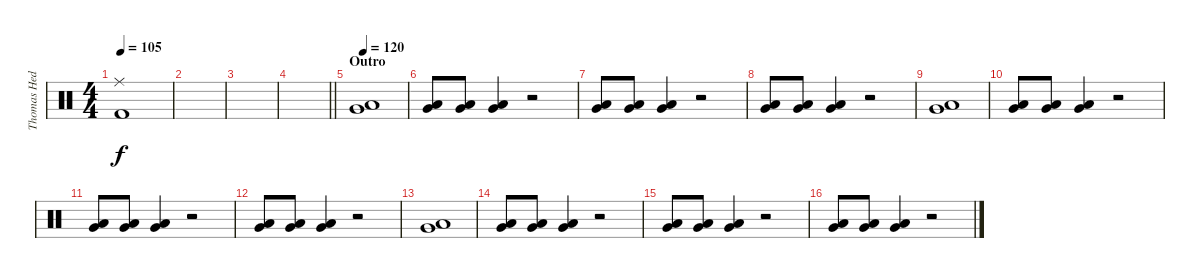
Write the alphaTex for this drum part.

\track ("Thomas Hedlund" "Thomas Hed") {instrument percussion}
\staff {score}
\articulation defaults
\ts (4 4)
\tempo 105
\clef neutral
\ks c
("Ride (middle)" "Kick (hit) 2").1{dy f} |
|
|
\barLineRight lightlight
|
\section ("" "Outro")
\tempo 120
("Very Low Tom (hit)" "Low Floor Tom (hit)").1 |
("Very Low Tom (hit)" "Low Floor Tom (hit)").8 ("Very Low Tom (hit)" "Low Floor Tom (hit)").8 ("Very Low Tom (hit)" "Low Floor Tom (hit)").4 r.2 |
("Very Low Tom (hit)" "Low Floor Tom (hit)").8 ("Very Low Tom (hit)" "Low Floor Tom (hit)").8 ("Very Low Tom (hit)" "Low Floor Tom (hit)").4 r.2 |
("Very Low Tom (hit)" "Low Floor Tom (hit)").8 ("Very Low Tom (hit)" "Low Floor Tom (hit)").8 ("Very Low Tom (hit)" "Low Floor Tom (hit)").4 r.2 |
("Very Low Tom (hit)" "Low Floor Tom (hit)").1 |
("Very Low Tom (hit)" "Low Floor Tom (hit)").8 ("Very Low Tom (hit)" "Low Floor Tom (hit)").8 ("Very Low Tom (hit)" "Low Floor Tom (hit)").4 r.2 |
("Very Low Tom (hit)" "Low Floor Tom (hit)").8 ("Very Low Tom (hit)" "Low Floor Tom (hit)").8 ("Very Low Tom (hit)" "Low Floor Tom (hit)").4 r.2 |
("Very Low Tom (hit)" "Low Floor Tom (hit)").8 ("Very Low Tom (hit)" "Low Floor Tom (hit)").8 ("Very Low Tom (hit)" "Low Floor Tom (hit)").4 r.2 |
("Very Low Tom (hit)" "Low Floor Tom (hit)").1 |
("Very Low Tom (hit)" "Low Floor Tom (hit)").8 ("Very Low Tom (hit)" "Low Floor Tom (hit)").8 ("Very Low Tom (hit)" "Low Floor Tom (hit)").4 r.2 |
("Very Low Tom (hit)" "Low Floor Tom (hit)").8 ("Very Low Tom (hit)" "Low Floor Tom (hit)").8 ("Very Low Tom (hit)" "Low Floor Tom (hit)").4 r.2 |
("Very Low Tom (hit)" "Low Floor Tom (hit)").8 ("Very Low Tom (hit)" "Low Floor Tom (hit)").8 ("Very Low Tom (hit)" "Low Floor Tom (hit)").4 r.2
